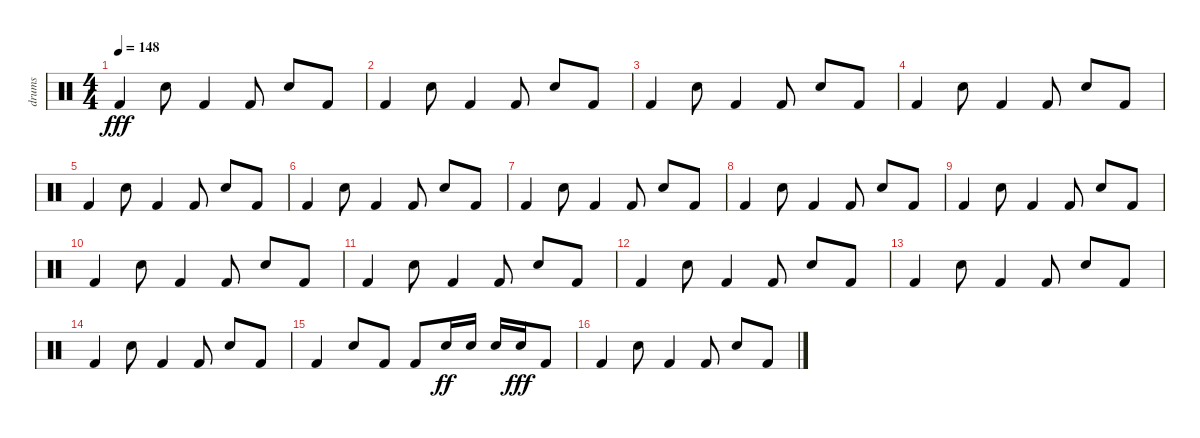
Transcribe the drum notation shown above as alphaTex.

\track ("drums" "drums") {instrument percussion}
\staff {score}
\articulation defaults
\ts (4 4)
\tempo 148
\clef neutral
\ks c "Kick (hit) 2".4{dy fff} "Electric Snare (hit)".8 "Kick (hit) 2".4 "Kick (hit) 2".8 "Electric Snare (hit)".8 "Kick (hit) 2".8
|
"Kick (hit) 2".4 "Electric Snare (hit)".8 "Kick (hit) 2".4 "Kick (hit) 2".8 "Electric Snare (hit)".8 "Kick (hit) 2".8 |
"Kick (hit) 2".4 "Electric Snare (hit)".8 "Kick (hit) 2".4 "Kick (hit) 2".8 "Electric Snare (hit)".8 "Kick (hit) 2".8 |
"Kick (hit) 2".4 "Electric Snare (hit)".8 "Kick (hit) 2".4 "Kick (hit) 2".8 "Electric Snare (hit)".8 "Kick (hit) 2".8 |
"Kick (hit) 2".4 "Electric Snare (hit)".8 "Kick (hit) 2".4 "Kick (hit) 2".8 "Electric Snare (hit)".8 "Kick (hit) 2".8 |
"Kick (hit) 2".4 "Electric Snare (hit)".8 "Kick (hit) 2".4 "Kick (hit) 2".8 "Electric Snare (hit)".8 "Kick (hit) 2".8 |
"Kick (hit) 2".4 "Electric Snare (hit)".8 "Kick (hit) 2".4 "Kick (hit) 2".8 "Electric Snare (hit)".8 "Kick (hit) 2".8 |
"Kick (hit) 2".4 "Electric Snare (hit)".8 "Kick (hit) 2".4 "Kick (hit) 2".8 "Electric Snare (hit)".8 "Kick (hit) 2".8 |
"Kick (hit) 2".4 "Electric Snare (hit)".8 "Kick (hit) 2".4 "Kick (hit) 2".8 "Electric Snare (hit)".8 "Kick (hit) 2".8 |
"Kick (hit) 2".4 "Electric Snare (hit)".8 "Kick (hit) 2".4 "Kick (hit) 2".8 "Electric Snare (hit)".8 "Kick (hit) 2".8 |
"Kick (hit) 2".4 "Electric Snare (hit)".8 "Kick (hit) 2".4 "Kick (hit) 2".8 "Electric Snare (hit)".8 "Kick (hit) 2".8 |
"Kick (hit) 2".4 "Electric Snare (hit)".8 "Kick (hit) 2".4 "Kick (hit) 2".8 "Electric Snare (hit)".8 "Kick (hit) 2".8 |
"Kick (hit) 2".4 "Electric Snare (hit)".8 "Kick (hit) 2".4 "Kick (hit) 2".8 "Electric Snare (hit)".8 "Kick (hit) 2".8 |
"Kick (hit) 2".4 "Electric Snare (hit)".8 "Kick (hit) 2".4 "Kick (hit) 2".8 "Electric Snare (hit)".8 "Kick (hit) 2".8 |
"Kick (hit) 2".4 "Electric Snare (hit)".8 "Kick (hit) 2".8 "Kick (hit) 2".8 "Electric Snare (hit)".16{dy ff} "Electric Snare (hit)".16 "Electric Snare (hit)".16 "Electric Snare (hit)".16{dy fff} "Kick (hit) 2".8 |
"Kick (hit) 2".4 "Electric Snare (hit)".8 "Kick (hit) 2".4 "Kick (hit) 2".8 "Electric Snare (hit)".8 "Kick (hit) 2".8
